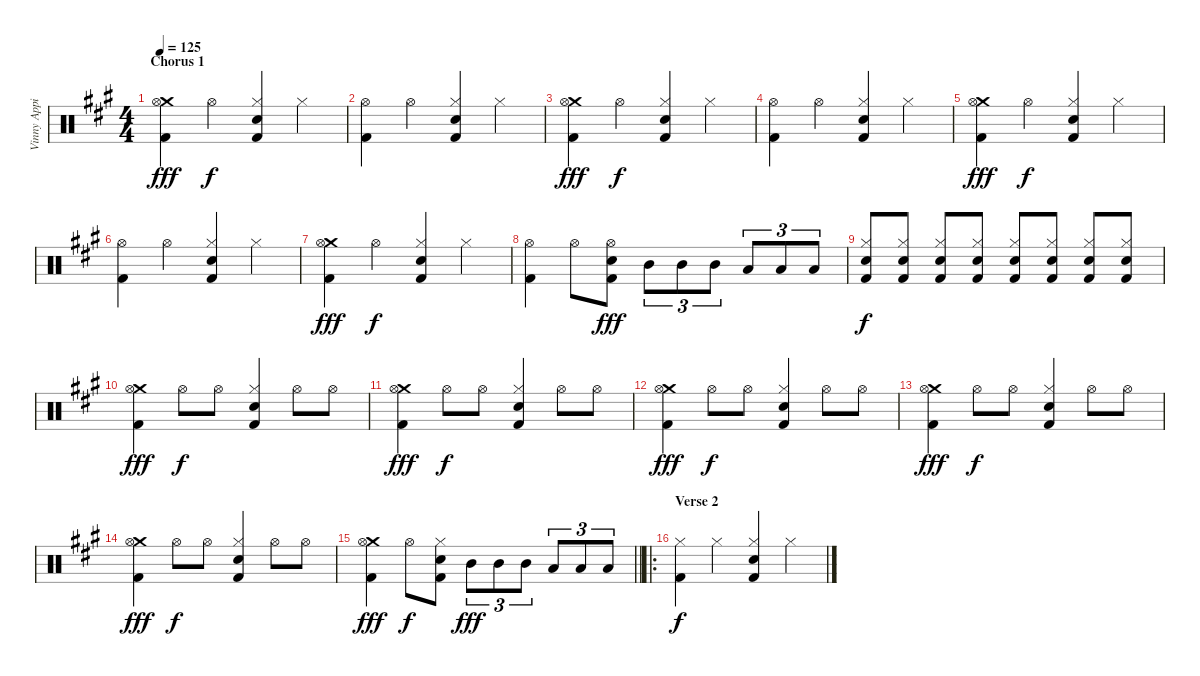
\track ("Vinny Appice" "Vinny Appi") {instrument percussion}
\staff {score}
\articulation defaults
\ts (4 4)
\section ("" "Chorus 1")
\tempo 125
\clef neutral
\ks a
("Crash medium (hit)" "Hi-Hat (open)" "Kick (hit) 2").4{dy fff} "Hi-Hat (open)".4{dy f} ("Hi-Hat (closed)" "Snare (hit) 2" "Kick (hit) 2").4 "Hi-Hat (closed)".4 |
("Hi-Hat (open)" "Kick (hit) 2").4 "Hi-Hat (open)".4 ("Hi-Hat (closed)" "Snare (hit) 2" "Kick (hit) 2").4 "Hi-Hat (closed)".4 |
("Crash medium (hit)" "Hi-Hat (open)" "Kick (hit) 2").4{dy fff} "Hi-Hat (open)".4{dy f} ("Hi-Hat (closed)" "Snare (hit) 2" "Kick (hit) 2").4 "Hi-Hat (closed)".4 |
("Hi-Hat (open)" "Kick (hit) 2").4 "Hi-Hat (open)".4 ("Hi-Hat (closed)" "Snare (hit) 2" "Kick (hit) 2").4 "Hi-Hat (closed)".4 |
("Crash medium (hit)" "Hi-Hat (open)" "Kick (hit) 2").4{dy fff} "Hi-Hat (open)".4{dy f} ("Hi-Hat (closed)" "Snare (hit) 2" "Kick (hit) 2").4 "Hi-Hat (closed)".4 |
("Hi-Hat (open)" "Kick (hit) 2").4 "Hi-Hat (open)".4 ("Hi-Hat (closed)" "Snare (hit) 2" "Kick (hit) 2").4 "Hi-Hat (closed)".4 |
("Crash medium (hit)" "Hi-Hat (open)" "Kick (hit) 2").4{dy fff} "Hi-Hat (open)".4{dy f} ("Hi-Hat (closed)" "Snare (hit) 2" "Kick (hit) 2").4 "Hi-Hat (closed)".4 |
("Hi-Hat (open)" "Kick (hit) 2").4 "Hi-Hat (open)".8 ("Hi-Hat (open)" "Snare (hit) 2" "Kick (hit) 2").8{dy fff} "Mid Tom (hit)".8{tu (3 2)} "Mid Tom (hit)".8{tu (3 2)} "Mid Tom (hit)".8{tu (3 2)} "Low Tom (hit)".8{tu (3 2)} "Low Tom (hit)".8{tu (3 2)} "Low Tom (hit)".8{tu (3 2)} |
("Hi-Hat (closed)" "Snare (hit) 2" "Kick (hit) 2").8{dy f} ("Hi-Hat (closed)" "Snare (hit) 2" "Kick (hit) 2").8 ("Hi-Hat (closed)" "Snare (hit) 2" "Kick (hit) 2").8 ("Hi-Hat (closed)" "Snare (hit) 2" "Kick (hit) 2").8 ("Hi-Hat (closed)" "Snare (hit) 2" "Kick (hit) 2").8 ("Hi-Hat (closed)" "Snare (hit) 2" "Kick (hit) 2").8 ("Hi-Hat (closed)" "Snare (hit) 2" "Kick (hit) 2").8 ("Hi-Hat (closed)" "Snare (hit) 2" "Kick (hit) 2").8 |
("Crash medium (hit)" "Hi-Hat (open)" "Kick (hit) 2").4{dy fff} "Hi-Hat (open)".8{dy f} "Hi-Hat (open)".8 ("Hi-Hat (closed)" "Snare (hit) 2" "Kick (hit) 2").4 "Hi-Hat (open)".8 "Hi-Hat (open)".8 |
("Crash medium (hit)" "Hi-Hat (open)" "Kick (hit) 2").4{dy fff} "Hi-Hat (open)".8{dy f} "Hi-Hat (open)".8 ("Hi-Hat (closed)" "Snare (hit) 2" "Kick (hit) 2").4 "Hi-Hat (open)".8 "Hi-Hat (open)".8 |
("Crash medium (hit)" "Hi-Hat (open)" "Kick (hit) 2").4{dy fff} "Hi-Hat (open)".8{dy f} "Hi-Hat (open)".8 ("Hi-Hat (closed)" "Snare (hit) 2" "Kick (hit) 2").4 "Hi-Hat (open)".8 "Hi-Hat (open)".8 |
("Crash medium (hit)" "Hi-Hat (open)" "Kick (hit) 2").4{dy fff} "Hi-Hat (open)".8{dy f} "Hi-Hat (open)".8 ("Hi-Hat (closed)" "Snare (hit) 2" "Kick (hit) 2").4 "Hi-Hat (open)".8 "Hi-Hat (open)".8 |
("Crash medium (hit)" "Hi-Hat (open)" "Kick (hit) 2").4{dy fff} "Hi-Hat (open)".8{dy f} "Hi-Hat (open)".8 ("Hi-Hat (closed)" "Snare (hit) 2" "Kick (hit) 2").4 "Hi-Hat (open)".8 "Hi-Hat (open)".8 |
\barLineRight lightlight
("Crash medium (hit)" "Hi-Hat (open)" "Kick (hit) 2").4{dy fff} "Hi-Hat (open)".8{dy f} ("Hi-Hat (closed)" "Snare (hit) 2" "Kick (hit) 2").8 "Mid Tom (hit)".8{tu (3 2) dy fff} "Mid Tom (hit)".8{tu (3 2)} "Mid Tom (hit)".8{tu (3 2)} "Low Tom (hit)".8{tu (3 2)} "Low Tom (hit)".8{tu (3 2)} "Low Tom (hit)".8{tu (3 2)} |
\ro
\section ("" "Verse 2")
("Hi-Hat (closed)" "Kick (hit) 2").4{dy f} "Hi-Hat (closed)".4 ("Hi-Hat (closed)" "Snare (hit) 2" "Kick (hit) 2").4 "Hi-Hat (closed)".4
